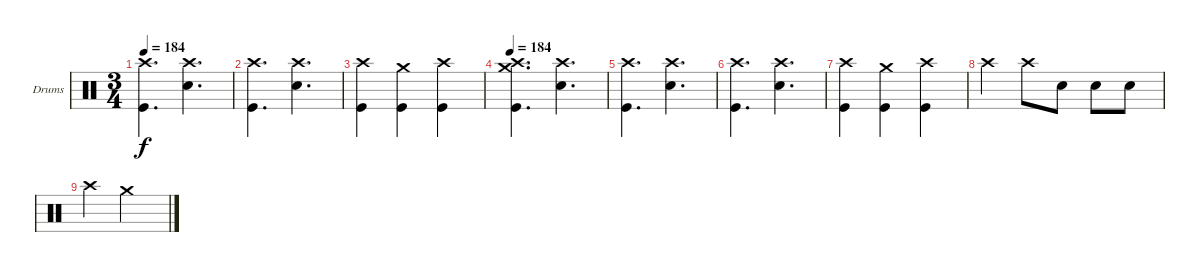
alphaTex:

\bracketExtendMode groupsimilarinstruments
\firstSystemTrackNameOrientation horizontal
\otherSystemsTrackNameOrientation horizontal
\track ("Drumkit" "Drums") {instrument percussion}
\staff {score}
\articulation defaults
\ts (3 4)
\tempo 184
\clef neutral
\ks c
("Crash high (hit)" "Kick (hit)").4{d dy f} ("Crash high (hit)" "Snare (hit) 2").4{d} |
("Crash high (hit)" "Kick (hit)").4{d} ("Crash high (hit)" "Snare (hit) 2").4{d} |
("Crash high (hit)" "Kick (hit)").4 ("Crash medium (hit)" "Kick (hit)").4 ("Crash high (hit)" "Kick (hit)").4 |
\tempo 184
("Crash high (hit)" "Crash medium (hit)" "Kick (hit)").4{d} ("Crash high (hit)" "Snare (hit) 2").4{d} |
("Crash high (hit)" "Kick (hit)").4{d} ("Crash high (hit)" "Snare (hit) 2").4{d} |
("Crash high (hit)" "Kick (hit)").4{d} ("Crash high (hit)" "Snare (hit) 2").4{d} |
("Crash high (hit)" "Kick (hit)").4 ("Crash medium (hit)" "Kick (hit)").4 ("Crash high (hit)" "Kick (hit)").4 |
"Crash high (hit)".4 "Crash high (hit)".8 "Snare (hit) 2".8 "Snare (hit) 2".8 "Snare (hit) 2".8 |
"Crash high (hit)".4 "Crash medium (hit)".2
